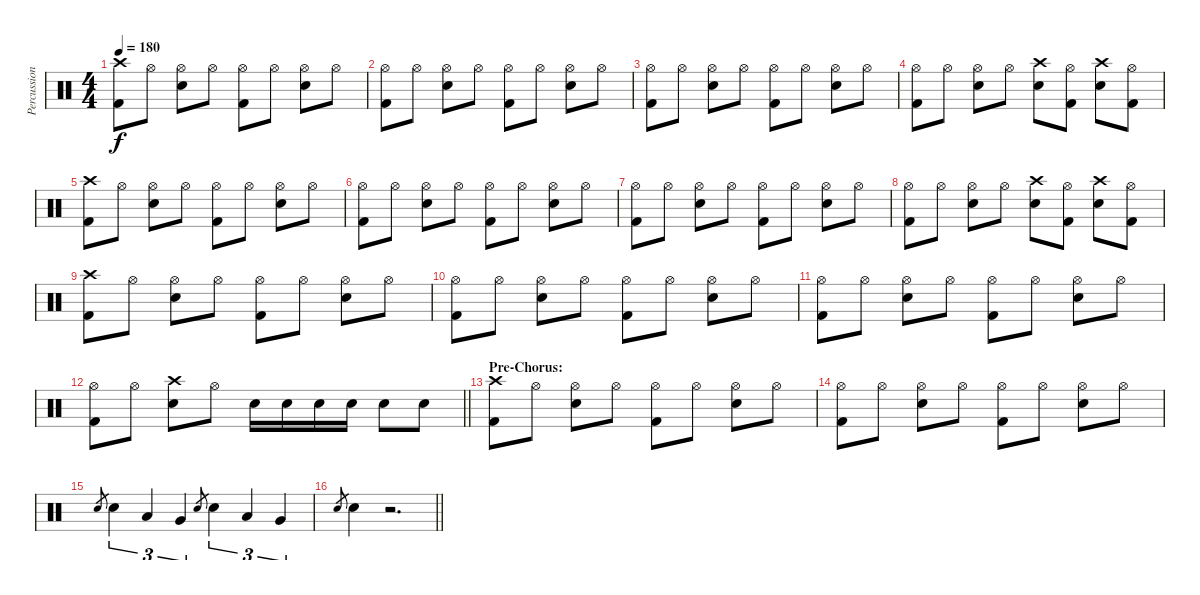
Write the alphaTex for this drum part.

\track ("Percussion" "Percussion") {instrument percussion}
\staff {score}
\articulation defaults
\ts (4 4)
\tempo 180
\clef neutral
\ks c
("Crash high (hit)" "Kick (hit) 2").8{dy f} "Hi-Hat (open)".8 ("Hi-Hat (open)" "Snare (hit) 2").8 "Hi-Hat (open)".8 ("Hi-Hat (open)" "Kick (hit) 2").8 "Hi-Hat (open)".8 ("Hi-Hat (open)" "Snare (hit) 2").8 "Hi-Hat (open)".8 |
("Hi-Hat (open)" "Kick (hit) 2").8 "Hi-Hat (open)".8 ("Hi-Hat (open)" "Snare (hit) 2").8 "Hi-Hat (open)".8 ("Hi-Hat (open)" "Kick (hit) 2").8 "Hi-Hat (open)".8 ("Hi-Hat (open)" "Snare (hit) 2").8 "Hi-Hat (open)".8 |
("Hi-Hat (open)" "Kick (hit) 2").8 "Hi-Hat (open)".8 ("Hi-Hat (open)" "Snare (hit) 2").8 "Hi-Hat (open)".8 ("Hi-Hat (open)" "Kick (hit) 2").8 "Hi-Hat (open)".8 ("Hi-Hat (open)" "Snare (hit) 2").8 "Hi-Hat (open)".8 |
("Hi-Hat (open)" "Kick (hit) 2").8 "Hi-Hat (open)".8 ("Hi-Hat (open)" "Snare (hit) 2").8 "Hi-Hat (open)".8 ("Crash high (hit)" "Snare (hit) 2").8 ("Hi-Hat (open)" "Kick (hit) 2").8 ("Crash high (hit)" "Snare (hit) 2").8 ("Hi-Hat (open)" "Kick (hit) 2").8 |
("Crash high (hit)" "Kick (hit) 2").8 "Hi-Hat (open)".8 ("Hi-Hat (open)" "Snare (hit) 2").8 "Hi-Hat (open)".8 ("Hi-Hat (open)" "Kick (hit) 2").8 "Hi-Hat (open)".8 ("Hi-Hat (open)" "Snare (hit) 2").8 "Hi-Hat (open)".8 |
("Hi-Hat (open)" "Kick (hit) 2").8 "Hi-Hat (open)".8 ("Hi-Hat (open)" "Snare (hit) 2").8 "Hi-Hat (open)".8 ("Hi-Hat (open)" "Kick (hit) 2").8 "Hi-Hat (open)".8 ("Hi-Hat (open)" "Snare (hit) 2").8 "Hi-Hat (open)".8 |
("Hi-Hat (open)" "Kick (hit) 2").8 "Hi-Hat (open)".8 ("Hi-Hat (open)" "Snare (hit) 2").8 "Hi-Hat (open)".8 ("Hi-Hat (open)" "Kick (hit) 2").8 "Hi-Hat (open)".8 ("Hi-Hat (open)" "Snare (hit) 2").8 "Hi-Hat (open)".8 |
("Hi-Hat (open)" "Kick (hit) 2").8 "Hi-Hat (open)".8 ("Hi-Hat (open)" "Snare (hit) 2").8 "Hi-Hat (open)".8 ("Crash high (hit)" "Snare (hit) 2").8 ("Hi-Hat (open)" "Kick (hit) 2").8 ("Crash high (hit)" "Snare (hit) 2").8 ("Hi-Hat (open)" "Kick (hit) 2").8 |
("Crash high (hit)" "Kick (hit) 2").8 "Hi-Hat (open)".8 ("Hi-Hat (open)" "Snare (hit) 2").8 "Hi-Hat (open)".8 ("Hi-Hat (open)" "Kick (hit) 2").8 "Hi-Hat (open)".8 ("Hi-Hat (open)" "Snare (hit) 2").8 "Hi-Hat (open)".8 |
("Hi-Hat (open)" "Kick (hit) 2").8 "Hi-Hat (open)".8 ("Hi-Hat (open)" "Snare (hit) 2").8 "Hi-Hat (open)".8 ("Hi-Hat (open)" "Kick (hit) 2").8 "Hi-Hat (open)".8 ("Hi-Hat (open)" "Snare (hit) 2").8 "Hi-Hat (open)".8 |
("Hi-Hat (open)" "Kick (hit) 2").8 "Hi-Hat (open)".8 ("Hi-Hat (open)" "Snare (hit) 2").8 "Hi-Hat (open)".8 ("Hi-Hat (open)" "Kick (hit) 2").8 "Hi-Hat (open)".8 ("Hi-Hat (open)" "Snare (hit) 2").8 "Hi-Hat (open)".8 |
\barLineRight lightlight
("Hi-Hat (open)" "Kick (hit) 2").8 "Hi-Hat (open)".8 ("Crash high (hit)" "Snare (hit) 2").8 "Hi-Hat (open)".8 "Snare (hit) 2".16 "Snare (hit) 2".16 "Snare (hit) 2".16 "Snare (hit) 2".16 "Snare (hit) 2".8 "Snare (hit) 2".8 |
\section ("" "Pre-Chorus:")
("Crash high (hit)" "Kick (hit) 2").8 "Hi-Hat (open)".8 ("Hi-Hat (open)" "Snare (hit) 2").8 "Hi-Hat (open)".8 ("Hi-Hat (open)" "Kick (hit) 2").8 "Hi-Hat (open)".8 ("Hi-Hat (open)" "Snare (hit) 2").8 "Hi-Hat (open)".8 |
("Hi-Hat (open)" "Kick (hit) 2").8 "Hi-Hat (open)".8 ("Hi-Hat (open)" "Snare (hit) 2").8 "Hi-Hat (open)".8 ("Hi-Hat (open)" "Kick (hit) 2").8 "Hi-Hat (open)".8 ("Hi-Hat (open)" "Snare (hit) 2").8 "Hi-Hat (open)".8 |
"Snare (hit) 2".8{gr} "Snare (hit) 2".4{tu (3 2)} "Low Tom (hit)".4{tu (3 2)} "Very Low Tom (hit)".4{tu (3 2)} "Snare (hit) 2".8{gr} "Snare (hit) 2".4{tu (3 2)} "Low Tom (hit)".4{tu (3 2)} "Very Low Tom (hit)".4{tu (3 2)} |
\barLineRight lightlight "Snare (hit) 2".8{gr} "Snare (hit) 2".4
r.2{d}
